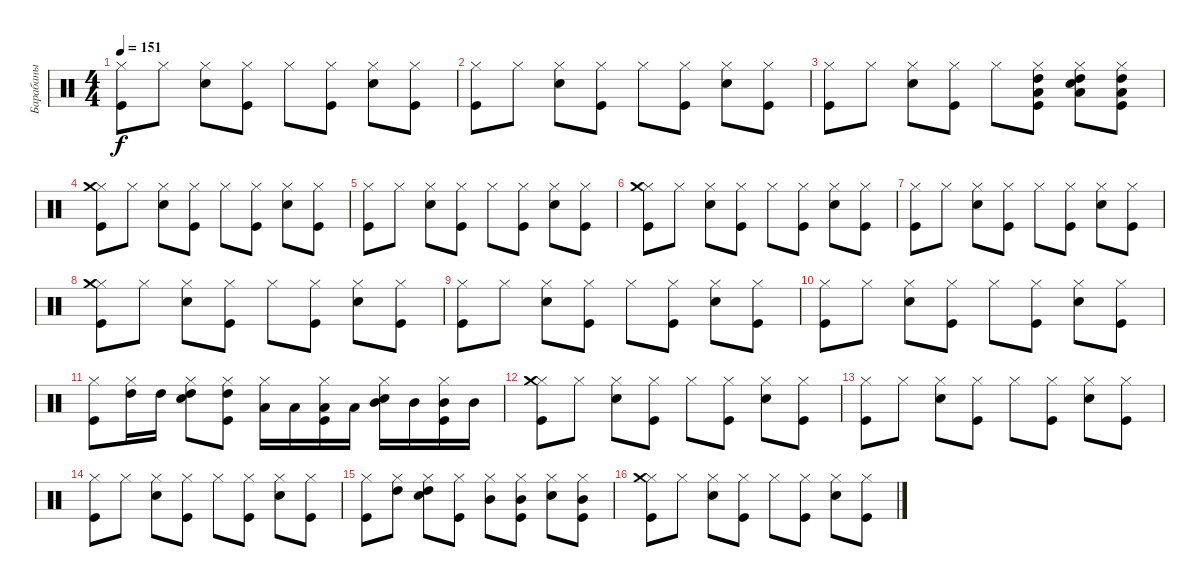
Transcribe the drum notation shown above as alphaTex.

\track ("Барабаны" "Барабаны") {instrument percussion}
\staff {score}
\articulation defaults
\ts (4 4)
\tempo 151
\clef neutral
\ks c
("Kick (hit)" "Hi-Hat (closed)").8{dy f} "Hi-Hat (closed)".8 ("Snare (hit) 2" "Hi-Hat (closed)").8 ("Kick (hit)" "Hi-Hat (closed)").8 "Hi-Hat (closed)".8 ("Kick (hit)" "Hi-Hat (closed)").8 ("Snare (hit) 2" "Hi-Hat (closed)").8 ("Kick (hit)" "Hi-Hat (closed)").8 |
("Kick (hit)" "Hi-Hat (closed)").8 "Hi-Hat (closed)".8 ("Snare (hit) 2" "Hi-Hat (closed)").8 ("Kick (hit)" "Hi-Hat (closed)").8 "Hi-Hat (closed)".8 ("Kick (hit)" "Hi-Hat (closed)").8 ("Snare (hit) 2" "Hi-Hat (closed)").8 ("Kick (hit)" "Hi-Hat (closed)").8 |
("Kick (hit)" "Hi-Hat (closed)").8 "Hi-Hat (closed)".8 ("Snare (hit) 2" "Hi-Hat (closed)").8 ("Kick (hit)" "Hi-Hat (closed)").8 "Hi-Hat (closed)".8 ("Kick (hit)" "Hi-Hat (closed)" "Low Floor Tom (hit)" "High Tom (hit)").8 ("Snare (hit) 2" "Hi-Hat (closed)" "Low Floor Tom (hit)" "High Tom (hit)").8 ("Kick (hit)" "Hi-Hat (closed)" "Low Floor Tom (hit)" "High Tom (hit)").8 |
("Kick (hit)" "Hi-Hat (closed)" "Crash medium (hit)").8 "Hi-Hat (closed)".8 ("Snare (hit) 2" "Hi-Hat (closed)").8 ("Kick (hit)" "Hi-Hat (closed)").8 "Hi-Hat (closed)".8 ("Kick (hit)" "Hi-Hat (closed)").8 ("Snare (hit) 2" "Hi-Hat (closed)").8 ("Kick (hit)" "Hi-Hat (closed)").8 |
("Kick (hit)" "Hi-Hat (closed)").8 "Hi-Hat (closed)".8 ("Snare (hit) 2" "Hi-Hat (closed)").8 ("Kick (hit)" "Hi-Hat (closed)").8 "Hi-Hat (closed)".8 ("Kick (hit)" "Hi-Hat (closed)").8 ("Snare (hit) 2" "Hi-Hat (closed)").8 ("Kick (hit)" "Hi-Hat (closed)").8 |
("Kick (hit)" "Hi-Hat (closed)" "Crash medium (hit)").8 "Hi-Hat (closed)".8 ("Snare (hit) 2" "Hi-Hat (closed)").8 ("Kick (hit)" "Hi-Hat (closed)").8 "Hi-Hat (closed)".8 ("Kick (hit)" "Hi-Hat (closed)").8 ("Snare (hit) 2" "Hi-Hat (closed)").8 ("Kick (hit)" "Hi-Hat (closed)").8 |
("Kick (hit)" "Hi-Hat (closed)").8 "Hi-Hat (closed)".8 ("Snare (hit) 2" "Hi-Hat (closed)").8 ("Kick (hit)" "Hi-Hat (closed)").8 "Hi-Hat (closed)".8 ("Kick (hit)" "Hi-Hat (closed)").8 ("Snare (hit) 2" "Hi-Hat (closed)").8 ("Kick (hit)" "Hi-Hat (closed)").8 |
("Kick (hit)" "Hi-Hat (closed)" "Crash medium (hit)").8 "Hi-Hat (closed)".8 ("Snare (hit) 2" "Hi-Hat (closed)").8 ("Kick (hit)" "Hi-Hat (closed)").8 "Hi-Hat (closed)".8 ("Kick (hit)" "Hi-Hat (closed)").8 ("Snare (hit) 2" "Hi-Hat (closed)").8 ("Kick (hit)" "Hi-Hat (closed)").8 |
("Kick (hit)" "Hi-Hat (closed)").8 "Hi-Hat (closed)".8 ("Snare (hit) 2" "Hi-Hat (closed)").8 ("Kick (hit)" "Hi-Hat (closed)").8 "Hi-Hat (closed)".8 ("Kick (hit)" "Hi-Hat (closed)").8 ("Snare (hit) 2" "Hi-Hat (closed)").8 ("Kick (hit)" "Hi-Hat (closed)").8 |
("Kick (hit)" "Hi-Hat (closed)").8 "Hi-Hat (closed)".8 ("Snare (hit) 2" "Hi-Hat (closed)").8 ("Kick (hit)" "Hi-Hat (closed)").8 "Hi-Hat (closed)".8 ("Kick (hit)" "Hi-Hat (closed)").8 ("Snare (hit) 2" "Hi-Hat (closed)").8 ("Kick (hit)" "Hi-Hat (closed)").8 |
("Kick (hit)" "Hi-Hat (closed)").8 ("Hi-Hat (closed)" "High Tom (hit)").16 "High Tom (hit)".16 ("Snare (hit) 2" "Hi-Hat (closed)" "High Tom (hit)").8 ("Kick (hit)" "Hi-Hat (closed)" "High Tom (hit)").8 ("Hi-Hat (closed)" "Low Tom (hit)").16 "Low Tom (hit)".16 ("Kick (hit)" "Hi-Hat (closed)" "Low Tom (hit)").16 "Low Tom (hit)".16 ("Snare (hit) 2" "Hi-Hat (closed)" "Mid Tom (hit)").16 "Mid Tom (hit)".16 ("Kick (hit)" "Hi-Hat (closed)" "Mid Tom (hit)").16 "Mid Tom (hit)".16 |
("Kick (hit)" "Hi-Hat (closed)" "Crash medium (hit)").8 "Hi-Hat (closed)".8 ("Snare (hit) 2" "Hi-Hat (closed)").8 ("Kick (hit)" "Hi-Hat (closed)").8 "Hi-Hat (closed)".8 ("Kick (hit)" "Hi-Hat (closed)").8 ("Snare (hit) 2" "Hi-Hat (closed)").8 ("Kick (hit)" "Hi-Hat (closed)").8 |
("Kick (hit)" "Hi-Hat (closed)").8 "Hi-Hat (closed)".8 ("Snare (hit) 2" "Hi-Hat (closed)").8 ("Kick (hit)" "Hi-Hat (closed)").8 "Hi-Hat (closed)".8 ("Kick (hit)" "Hi-Hat (closed)").8 ("Snare (hit) 2" "Hi-Hat (closed)").8 ("Kick (hit)" "Hi-Hat (closed)").8 |
("Kick (hit)" "Hi-Hat (closed)").8 "Hi-Hat (closed)".8 ("Snare (hit) 2" "Hi-Hat (closed)").8 ("Kick (hit)" "Hi-Hat (closed)").8 "Hi-Hat (closed)".8 ("Kick (hit)" "Hi-Hat (closed)").8 ("Snare (hit) 2" "Hi-Hat (closed)").8 ("Kick (hit)" "Hi-Hat (closed)").8 |
("Kick (hit)" "Hi-Hat (closed)").8 ("Hi-Hat (closed)" "High Tom (hit)").8 ("Snare (hit) 2" "Hi-Hat (closed)" "High Tom (hit)").8 ("Kick (hit)" "Hi-Hat (closed)").8 ("Hi-Hat (closed)" "Mid Tom (hit)").8 ("Kick (hit)" "Hi-Hat (closed)" "Mid Tom (hit)").8 ("Snare (hit) 2" "Hi-Hat (closed)").8 ("Kick (hit)" "Hi-Hat (closed)" "Mid Tom (hit)").8 |
("Kick (hit)" "Hi-Hat (closed)" "Crash medium (hit)").8 "Hi-Hat (closed)".8 ("Snare (hit) 2" "Hi-Hat (closed)").8 ("Kick (hit)" "Hi-Hat (closed)").8 "Hi-Hat (closed)".8 ("Kick (hit)" "Hi-Hat (closed)").8 ("Snare (hit) 2" "Hi-Hat (closed)").8 ("Kick (hit)" "Hi-Hat (closed)").8
